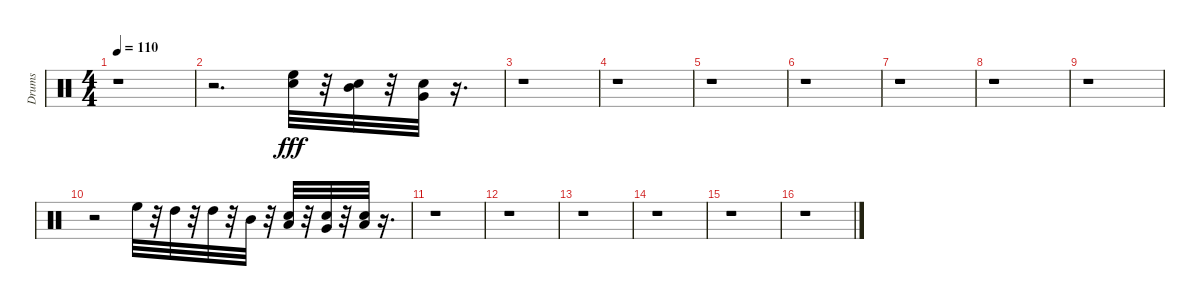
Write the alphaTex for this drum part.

\track ("Drums" "Drums") {instrument percussion}
\staff {score}
\articulation defaults
\ts (4 4)
\tempo 110
\clef neutral
\ks c
r.1{dy fff} |
r.2{d} ("High Floor Tom (hit)" "Electric Snare (hit)").32 r.32 ("Mid Tom (hit)" "Electric Snare (hit)").32 r.32 ("Very Low Tom (hit)" "Electric Snare (hit)").32 r.16{d} |
r.1 |
r.1 |
r.1 |
r.1 |
r.1 |
r.1 |
r.1 |
r.2 "High Floor Tom (hit)".32 r.32 "High Tom (hit)".32 r.32 "High Tom (hit)".32 r.32 "Mid Tom (hit)".32 r.32 ("Low Tom (hit)" "Electric Snare (hit)").32 r.32 ("Very Low Tom (hit)" "Electric Snare (hit)").32 r.32 ("Low Floor Tom (hit)" "Electric Snare (hit)").32 r.16{d} |
r.1 |
r.1 |
r.1 |
r.1 |
r.1 |
r.1
